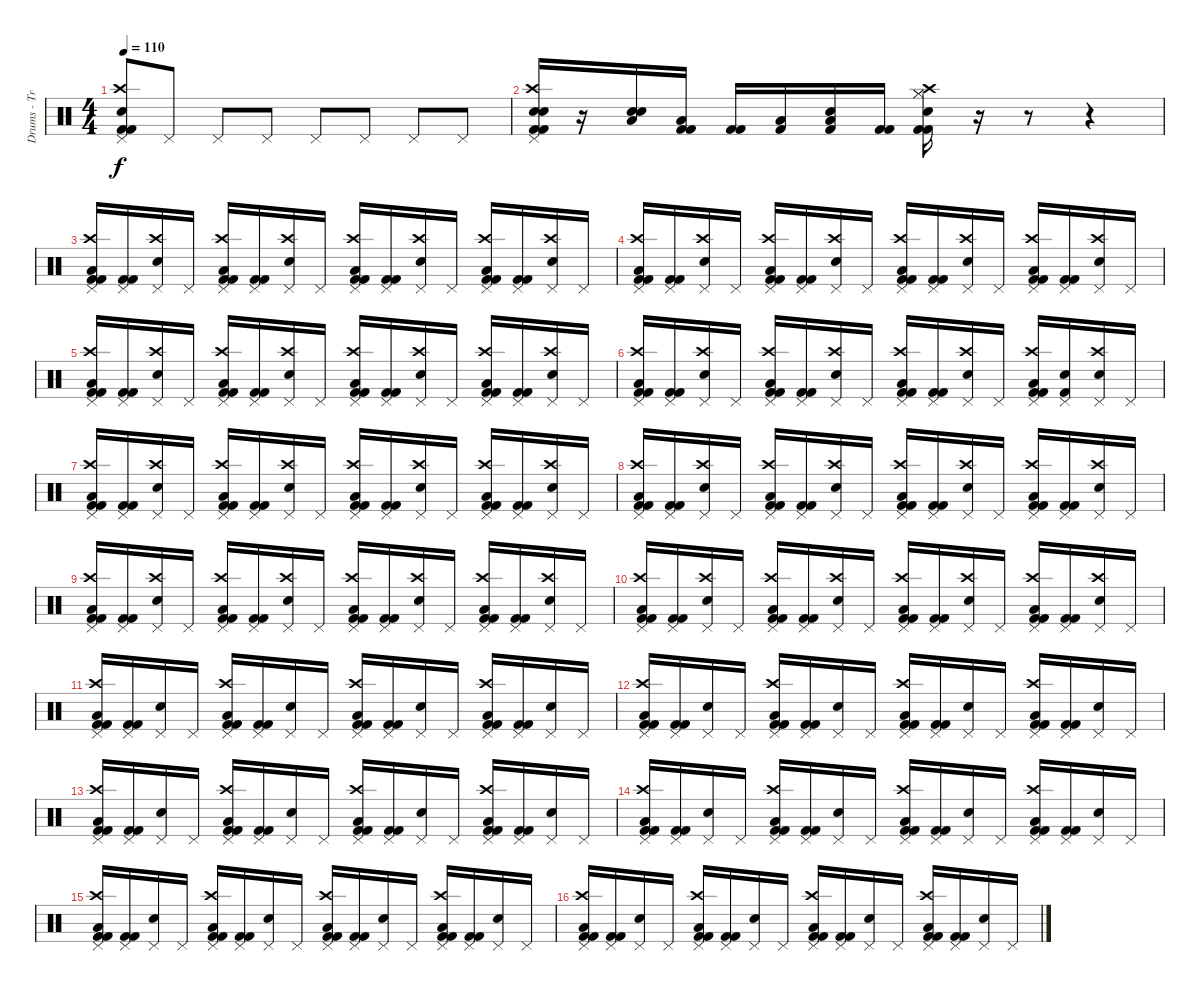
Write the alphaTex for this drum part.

\track ("Drums - Travis Barker" "Drums - Tr") {instrument percussion}
\staff {score}
\articulation defaults
\ts (4 4)
\tempo 110
\clef neutral
\ks c
("Pedal Hi-Hat (hit)" "Crash high (hit)" "Electric Snare (hit)" "Kick (hit) 2" "Kick (hit) 2").8{dy f} "Pedal Hi-Hat (hit)".8 "Pedal Hi-Hat (hit)".8 "Pedal Hi-Hat (hit)".8 "Pedal Hi-Hat (hit)".8 "Pedal Hi-Hat (hit)".8 "Pedal Hi-Hat (hit)".8 "Pedal Hi-Hat (hit)".8 |
("Pedal Hi-Hat (hit)" "Crash high (hit)" "Electric Snare (hit)" "Electric Snare (hit)" "Kick (hit) 2" "Kick (hit) 2").16 r.16 ("Low Tom (hit)" "Electric Snare (hit)" "Electric Snare (hit)").16 ("Low Tom (hit)" "Kick (hit) 2" "Kick (hit) 2").16 ("Kick (hit) 2" "Kick (hit) 2").16 ("Low Tom (hit)" "Kick (hit) 2").16 ("Low Tom (hit)" "Kick (hit) 2" "Electric Snare (hit)").16 ("Kick (hit) 2" "Kick (hit) 2").16 ("Hi-Hat (closed)" "Hi-Hat (closed)" "Crash high (hit)" "Kick (hit) 2" "Electric Snare (hit)" "Kick (hit) 2").16 r.16 r.8 r.4 |
("Pedal Hi-Hat (hit)" "Crash high (hit)" "Low Tom (hit)" "Kick (hit) 2" "Kick (hit) 2").16 ("Pedal Hi-Hat (hit)" "Kick (hit) 2" "Kick (hit) 2").16 ("Pedal Hi-Hat (hit)" "Crash high (hit)" "Electric Snare (hit)").16 "Pedal Hi-Hat (hit)".16 ("Pedal Hi-Hat (hit)" "Crash high (hit)" "Low Tom (hit)" "Kick (hit) 2" "Kick (hit) 2").16 ("Pedal Hi-Hat (hit)" "Kick (hit) 2" "Kick (hit) 2").16 ("Pedal Hi-Hat (hit)" "Crash high (hit)" "Electric Snare (hit)").16 "Pedal Hi-Hat (hit)".16 ("Pedal Hi-Hat (hit)" "Crash high (hit)" "Low Tom (hit)" "Kick (hit) 2" "Kick (hit) 2").16 ("Pedal Hi-Hat (hit)" "Kick (hit) 2" "Kick (hit) 2").16 ("Pedal Hi-Hat (hit)" "Crash high (hit)" "Electric Snare (hit)").16 "Pedal Hi-Hat (hit)".16 ("Pedal Hi-Hat (hit)" "Crash high (hit)" "Low Tom (hit)" "Kick (hit) 2" "Kick (hit) 2").16 ("Pedal Hi-Hat (hit)" "Kick (hit) 2" "Kick (hit) 2").16 ("Pedal Hi-Hat (hit)" "Crash high (hit)" "Electric Snare (hit)").16 "Pedal Hi-Hat (hit)".16 |
("Pedal Hi-Hat (hit)" "Crash high (hit)" "Low Tom (hit)" "Kick (hit) 2" "Kick (hit) 2").16 ("Pedal Hi-Hat (hit)" "Kick (hit) 2" "Kick (hit) 2").16 ("Pedal Hi-Hat (hit)" "Crash high (hit)" "Electric Snare (hit)").16 "Pedal Hi-Hat (hit)".16 ("Pedal Hi-Hat (hit)" "Crash high (hit)" "Low Tom (hit)" "Kick (hit) 2" "Kick (hit) 2").16 ("Pedal Hi-Hat (hit)" "Kick (hit) 2" "Kick (hit) 2").16 ("Pedal Hi-Hat (hit)" "Crash high (hit)" "Electric Snare (hit)").16 "Pedal Hi-Hat (hit)".16 ("Pedal Hi-Hat (hit)" "Crash high (hit)" "Low Tom (hit)" "Kick (hit) 2" "Kick (hit) 2").16 ("Pedal Hi-Hat (hit)" "Kick (hit) 2" "Kick (hit) 2").16 ("Pedal Hi-Hat (hit)" "Crash high (hit)" "Electric Snare (hit)").16 "Pedal Hi-Hat (hit)".16 ("Pedal Hi-Hat (hit)" "Crash high (hit)" "Low Tom (hit)" "Kick (hit) 2" "Kick (hit) 2").16 ("Pedal Hi-Hat (hit)" "Kick (hit) 2" "Kick (hit) 2").16 ("Pedal Hi-Hat (hit)" "Crash high (hit)" "Electric Snare (hit)").16 "Pedal Hi-Hat (hit)".16 |
("Pedal Hi-Hat (hit)" "Crash high (hit)" "Low Tom (hit)" "Kick (hit) 2" "Kick (hit) 2").16 ("Pedal Hi-Hat (hit)" "Kick (hit) 2" "Kick (hit) 2").16 ("Pedal Hi-Hat (hit)" "Crash high (hit)" "Electric Snare (hit)").16 "Pedal Hi-Hat (hit)".16 ("Pedal Hi-Hat (hit)" "Crash high (hit)" "Low Tom (hit)" "Kick (hit) 2" "Kick (hit) 2").16 ("Pedal Hi-Hat (hit)" "Kick (hit) 2" "Kick (hit) 2").16 ("Pedal Hi-Hat (hit)" "Crash high (hit)" "Electric Snare (hit)").16 "Pedal Hi-Hat (hit)".16 ("Pedal Hi-Hat (hit)" "Crash high (hit)" "Low Tom (hit)" "Kick (hit) 2" "Kick (hit) 2").16 ("Pedal Hi-Hat (hit)" "Kick (hit) 2" "Kick (hit) 2").16 ("Pedal Hi-Hat (hit)" "Crash high (hit)" "Electric Snare (hit)").16 "Pedal Hi-Hat (hit)".16 ("Pedal Hi-Hat (hit)" "Crash high (hit)" "Low Tom (hit)" "Kick (hit) 2" "Kick (hit) 2").16 ("Pedal Hi-Hat (hit)" "Kick (hit) 2" "Kick (hit) 2").16 ("Pedal Hi-Hat (hit)" "Crash high (hit)" "Electric Snare (hit)").16 "Pedal Hi-Hat (hit)".16 |
("Pedal Hi-Hat (hit)" "Crash high (hit)" "Low Tom (hit)" "Kick (hit) 2" "Kick (hit) 2").16 ("Pedal Hi-Hat (hit)" "Kick (hit) 2" "Kick (hit) 2").16 ("Pedal Hi-Hat (hit)" "Crash high (hit)" "Electric Snare (hit)").16 "Pedal Hi-Hat (hit)".16 ("Pedal Hi-Hat (hit)" "Crash high (hit)" "Low Tom (hit)" "Kick (hit) 2" "Kick (hit) 2").16 ("Pedal Hi-Hat (hit)" "Kick (hit) 2" "Kick (hit) 2").16 ("Pedal Hi-Hat (hit)" "Crash high (hit)" "Electric Snare (hit)").16 "Pedal Hi-Hat (hit)".16 ("Pedal Hi-Hat (hit)" "Crash high (hit)" "Low Tom (hit)" "Kick (hit) 2" "Kick (hit) 2").16 ("Pedal Hi-Hat (hit)" "Kick (hit) 2" "Kick (hit) 2").16 ("Pedal Hi-Hat (hit)" "Crash high (hit)" "Electric Snare (hit)").16 "Pedal Hi-Hat (hit)".16 ("Pedal Hi-Hat (hit)" "Crash high (hit)" "Low Tom (hit)" "Kick (hit) 2" "Kick (hit) 2").16 ("Pedal Hi-Hat (hit)" "Electric Snare (hit)" "Kick (hit) 2").16 ("Pedal Hi-Hat (hit)" "Crash high (hit)" "Electric Snare (hit)").16 "Pedal Hi-Hat (hit)".16 |
("Pedal Hi-Hat (hit)" "Crash high (hit)" "Low Tom (hit)" "Kick (hit) 2" "Kick (hit) 2").16 ("Pedal Hi-Hat (hit)" "Kick (hit) 2" "Kick (hit) 2").16 ("Pedal Hi-Hat (hit)" "Crash high (hit)" "Electric Snare (hit)").16 "Pedal Hi-Hat (hit)".16 ("Pedal Hi-Hat (hit)" "Crash high (hit)" "Low Tom (hit)" "Kick (hit) 2" "Kick (hit) 2").16 ("Pedal Hi-Hat (hit)" "Kick (hit) 2" "Kick (hit) 2").16 ("Pedal Hi-Hat (hit)" "Crash high (hit)" "Electric Snare (hit)").16 "Pedal Hi-Hat (hit)".16 ("Pedal Hi-Hat (hit)" "Crash high (hit)" "Low Tom (hit)" "Kick (hit) 2" "Kick (hit) 2").16 ("Pedal Hi-Hat (hit)" "Kick (hit) 2" "Kick (hit) 2").16 ("Pedal Hi-Hat (hit)" "Crash high (hit)" "Electric Snare (hit)").16 "Pedal Hi-Hat (hit)".16 ("Pedal Hi-Hat (hit)" "Crash high (hit)" "Low Tom (hit)" "Kick (hit) 2" "Kick (hit) 2").16 ("Pedal Hi-Hat (hit)" "Kick (hit) 2" "Kick (hit) 2").16 ("Pedal Hi-Hat (hit)" "Crash high (hit)" "Electric Snare (hit)").16 "Pedal Hi-Hat (hit)".16 |
("Pedal Hi-Hat (hit)" "Crash high (hit)" "Low Tom (hit)" "Kick (hit) 2" "Kick (hit) 2").16 ("Pedal Hi-Hat (hit)" "Kick (hit) 2" "Kick (hit) 2").16 ("Pedal Hi-Hat (hit)" "Crash high (hit)" "Electric Snare (hit)").16 "Pedal Hi-Hat (hit)".16 ("Pedal Hi-Hat (hit)" "Crash high (hit)" "Low Tom (hit)" "Kick (hit) 2" "Kick (hit) 2").16 ("Pedal Hi-Hat (hit)" "Kick (hit) 2" "Kick (hit) 2").16 ("Pedal Hi-Hat (hit)" "Crash high (hit)" "Electric Snare (hit)").16 "Pedal Hi-Hat (hit)".16 ("Pedal Hi-Hat (hit)" "Crash high (hit)" "Low Tom (hit)" "Kick (hit) 2" "Kick (hit) 2").16 ("Pedal Hi-Hat (hit)" "Kick (hit) 2" "Kick (hit) 2").16 ("Pedal Hi-Hat (hit)" "Crash high (hit)" "Electric Snare (hit)").16 "Pedal Hi-Hat (hit)".16 ("Pedal Hi-Hat (hit)" "Crash high (hit)" "Low Tom (hit)" "Kick (hit) 2" "Kick (hit) 2").16 ("Pedal Hi-Hat (hit)" "Kick (hit) 2" "Kick (hit) 2").16 ("Pedal Hi-Hat (hit)" "Crash high (hit)" "Electric Snare (hit)").16 "Pedal Hi-Hat (hit)".16 |
("Pedal Hi-Hat (hit)" "Crash high (hit)" "Low Tom (hit)" "Kick (hit) 2" "Kick (hit) 2").16 ("Pedal Hi-Hat (hit)" "Kick (hit) 2" "Kick (hit) 2").16 ("Pedal Hi-Hat (hit)" "Crash high (hit)" "Electric Snare (hit)").16 "Pedal Hi-Hat (hit)".16 ("Pedal Hi-Hat (hit)" "Crash high (hit)" "Low Tom (hit)" "Kick (hit) 2" "Kick (hit) 2").16 ("Pedal Hi-Hat (hit)" "Kick (hit) 2" "Kick (hit) 2").16 ("Pedal Hi-Hat (hit)" "Crash high (hit)" "Electric Snare (hit)").16 "Pedal Hi-Hat (hit)".16 ("Pedal Hi-Hat (hit)" "Crash high (hit)" "Low Tom (hit)" "Kick (hit) 2" "Kick (hit) 2").16 ("Pedal Hi-Hat (hit)" "Kick (hit) 2" "Kick (hit) 2").16 ("Pedal Hi-Hat (hit)" "Crash high (hit)" "Electric Snare (hit)").16 "Pedal Hi-Hat (hit)".16 ("Pedal Hi-Hat (hit)" "Crash high (hit)" "Low Tom (hit)" "Kick (hit) 2" "Kick (hit) 2").16 ("Pedal Hi-Hat (hit)" "Kick (hit) 2" "Kick (hit) 2").16 ("Pedal Hi-Hat (hit)" "Crash high (hit)" "Electric Snare (hit)").16 "Pedal Hi-Hat (hit)".16 |
("Pedal Hi-Hat (hit)" "Crash high (hit)" "Low Tom (hit)" "Kick (hit) 2" "Kick (hit) 2").16 ("Pedal Hi-Hat (hit)" "Kick (hit) 2" "Kick (hit) 2").16 ("Pedal Hi-Hat (hit)" "Crash high (hit)" "Electric Snare (hit)").16 "Pedal Hi-Hat (hit)".16 ("Pedal Hi-Hat (hit)" "Crash high (hit)" "Low Tom (hit)" "Kick (hit) 2" "Kick (hit) 2").16 ("Pedal Hi-Hat (hit)" "Kick (hit) 2" "Kick (hit) 2").16 ("Pedal Hi-Hat (hit)" "Crash high (hit)" "Electric Snare (hit)").16 "Pedal Hi-Hat (hit)".16 ("Pedal Hi-Hat (hit)" "Crash high (hit)" "Low Tom (hit)" "Kick (hit) 2" "Kick (hit) 2").16 ("Pedal Hi-Hat (hit)" "Kick (hit) 2" "Kick (hit) 2").16 ("Pedal Hi-Hat (hit)" "Crash high (hit)" "Electric Snare (hit)").16 "Pedal Hi-Hat (hit)".16 ("Pedal Hi-Hat (hit)" "Crash high (hit)" "Low Tom (hit)" "Kick (hit) 2" "Kick (hit) 2").16 ("Pedal Hi-Hat (hit)" "Kick (hit) 2" "Kick (hit) 2").16 ("Pedal Hi-Hat (hit)" "Crash high (hit)" "Electric Snare (hit)").16 "Pedal Hi-Hat (hit)".16 |
("Pedal Hi-Hat (hit)" "Crash high (hit)" "Low Tom (hit)" "Kick (hit) 2" "Kick (hit) 2").16 ("Pedal Hi-Hat (hit)" "Kick (hit) 2" "Kick (hit) 2").16 ("Pedal Hi-Hat (hit)" "Electric Snare (hit)").16 "Pedal Hi-Hat (hit)".16 ("Pedal Hi-Hat (hit)" "Crash high (hit)" "Low Tom (hit)" "Kick (hit) 2" "Kick (hit) 2").16 ("Pedal Hi-Hat (hit)" "Kick (hit) 2" "Kick (hit) 2").16 ("Pedal Hi-Hat (hit)" "Electric Snare (hit)").16 "Pedal Hi-Hat (hit)".16 ("Pedal Hi-Hat (hit)" "Crash high (hit)" "Low Tom (hit)" "Kick (hit) 2" "Kick (hit) 2").16 ("Pedal Hi-Hat (hit)" "Kick (hit) 2" "Kick (hit) 2").16 ("Pedal Hi-Hat (hit)" "Electric Snare (hit)").16 "Pedal Hi-Hat (hit)".16 ("Pedal Hi-Hat (hit)" "Crash high (hit)" "Low Tom (hit)" "Kick (hit) 2" "Kick (hit) 2").16 ("Pedal Hi-Hat (hit)" "Kick (hit) 2" "Kick (hit) 2").16 ("Pedal Hi-Hat (hit)" "Electric Snare (hit)").16 "Pedal Hi-Hat (hit)".16 |
("Pedal Hi-Hat (hit)" "Crash high (hit)" "Low Tom (hit)" "Kick (hit) 2" "Kick (hit) 2").16 ("Pedal Hi-Hat (hit)" "Kick (hit) 2" "Kick (hit) 2").16 ("Pedal Hi-Hat (hit)" "Electric Snare (hit)").16 "Pedal Hi-Hat (hit)".16 ("Pedal Hi-Hat (hit)" "Crash high (hit)" "Low Tom (hit)" "Kick (hit) 2" "Kick (hit) 2").16 ("Pedal Hi-Hat (hit)" "Kick (hit) 2" "Kick (hit) 2").16 ("Pedal Hi-Hat (hit)" "Electric Snare (hit)").16 "Pedal Hi-Hat (hit)".16 ("Pedal Hi-Hat (hit)" "Crash high (hit)" "Low Tom (hit)" "Kick (hit) 2" "Kick (hit) 2").16 ("Pedal Hi-Hat (hit)" "Kick (hit) 2" "Kick (hit) 2").16 ("Pedal Hi-Hat (hit)" "Electric Snare (hit)").16 "Pedal Hi-Hat (hit)".16 ("Pedal Hi-Hat (hit)" "Crash high (hit)" "Low Tom (hit)" "Kick (hit) 2" "Kick (hit) 2").16 ("Pedal Hi-Hat (hit)" "Kick (hit) 2" "Kick (hit) 2").16 ("Pedal Hi-Hat (hit)" "Electric Snare (hit)").16 "Pedal Hi-Hat (hit)".16 |
("Pedal Hi-Hat (hit)" "Crash high (hit)" "Low Tom (hit)" "Kick (hit) 2" "Kick (hit) 2").16 ("Pedal Hi-Hat (hit)" "Kick (hit) 2" "Kick (hit) 2").16 ("Pedal Hi-Hat (hit)" "Electric Snare (hit)").16 "Pedal Hi-Hat (hit)".16 ("Pedal Hi-Hat (hit)" "Crash high (hit)" "Low Tom (hit)" "Kick (hit) 2" "Kick (hit) 2").16 ("Pedal Hi-Hat (hit)" "Kick (hit) 2" "Kick (hit) 2").16 ("Pedal Hi-Hat (hit)" "Electric Snare (hit)").16 "Pedal Hi-Hat (hit)".16 ("Pedal Hi-Hat (hit)" "Crash high (hit)" "Low Tom (hit)" "Kick (hit) 2" "Kick (hit) 2").16 ("Pedal Hi-Hat (hit)" "Kick (hit) 2" "Kick (hit) 2").16 ("Pedal Hi-Hat (hit)" "Electric Snare (hit)").16 "Pedal Hi-Hat (hit)".16 ("Pedal Hi-Hat (hit)" "Crash high (hit)" "Low Tom (hit)" "Kick (hit) 2" "Kick (hit) 2").16 ("Pedal Hi-Hat (hit)" "Kick (hit) 2" "Kick (hit) 2").16 ("Pedal Hi-Hat (hit)" "Electric Snare (hit)").16 "Pedal Hi-Hat (hit)".16 |
("Pedal Hi-Hat (hit)" "Crash high (hit)" "Low Tom (hit)" "Kick (hit) 2" "Kick (hit) 2").16 ("Pedal Hi-Hat (hit)" "Kick (hit) 2" "Kick (hit) 2").16 ("Pedal Hi-Hat (hit)" "Electric Snare (hit)").16 "Pedal Hi-Hat (hit)".16 ("Pedal Hi-Hat (hit)" "Crash high (hit)" "Low Tom (hit)" "Kick (hit) 2" "Kick (hit) 2").16 ("Pedal Hi-Hat (hit)" "Kick (hit) 2" "Kick (hit) 2").16 ("Pedal Hi-Hat (hit)" "Electric Snare (hit)").16 "Pedal Hi-Hat (hit)".16 ("Pedal Hi-Hat (hit)" "Crash high (hit)" "Low Tom (hit)" "Kick (hit) 2" "Kick (hit) 2").16 ("Pedal Hi-Hat (hit)" "Kick (hit) 2" "Kick (hit) 2").16 ("Pedal Hi-Hat (hit)" "Electric Snare (hit)").16 "Pedal Hi-Hat (hit)".16 ("Pedal Hi-Hat (hit)" "Crash high (hit)" "Low Tom (hit)" "Kick (hit) 2" "Kick (hit) 2").16 ("Pedal Hi-Hat (hit)" "Kick (hit) 2" "Kick (hit) 2").16 ("Pedal Hi-Hat (hit)" "Electric Snare (hit)").16 "Pedal Hi-Hat (hit)".16 |
("Pedal Hi-Hat (hit)" "Crash high (hit)" "Low Tom (hit)" "Kick (hit) 2" "Kick (hit) 2").16 ("Pedal Hi-Hat (hit)" "Kick (hit) 2" "Kick (hit) 2").16 ("Pedal Hi-Hat (hit)" "Electric Snare (hit)").16 "Pedal Hi-Hat (hit)".16 ("Pedal Hi-Hat (hit)" "Crash high (hit)" "Low Tom (hit)" "Kick (hit) 2" "Kick (hit) 2").16 ("Pedal Hi-Hat (hit)" "Kick (hit) 2" "Kick (hit) 2").16 ("Pedal Hi-Hat (hit)" "Electric Snare (hit)").16 "Pedal Hi-Hat (hit)".16 ("Pedal Hi-Hat (hit)" "Crash high (hit)" "Low Tom (hit)" "Kick (hit) 2" "Kick (hit) 2").16 ("Pedal Hi-Hat (hit)" "Kick (hit) 2" "Kick (hit) 2").16 ("Pedal Hi-Hat (hit)" "Electric Snare (hit)").16 "Pedal Hi-Hat (hit)".16 ("Pedal Hi-Hat (hit)" "Crash high (hit)" "Low Tom (hit)" "Kick (hit) 2" "Kick (hit) 2").16 ("Pedal Hi-Hat (hit)" "Kick (hit) 2" "Kick (hit) 2").16 ("Pedal Hi-Hat (hit)" "Electric Snare (hit)").16 "Pedal Hi-Hat (hit)".16 |
("Pedal Hi-Hat (hit)" "Crash high (hit)" "Low Tom (hit)" "Kick (hit) 2" "Kick (hit) 2").16 ("Pedal Hi-Hat (hit)" "Kick (hit) 2" "Kick (hit) 2").16 ("Pedal Hi-Hat (hit)" "Electric Snare (hit)").16 "Pedal Hi-Hat (hit)".16 ("Pedal Hi-Hat (hit)" "Crash high (hit)" "Low Tom (hit)" "Kick (hit) 2" "Kick (hit) 2").16 ("Pedal Hi-Hat (hit)" "Kick (hit) 2" "Kick (hit) 2").16 ("Pedal Hi-Hat (hit)" "Electric Snare (hit)").16 "Pedal Hi-Hat (hit)".16 ("Pedal Hi-Hat (hit)" "Crash high (hit)" "Low Tom (hit)" "Kick (hit) 2" "Kick (hit) 2").16 ("Pedal Hi-Hat (hit)" "Kick (hit) 2" "Kick (hit) 2").16 ("Pedal Hi-Hat (hit)" "Electric Snare (hit)").16 "Pedal Hi-Hat (hit)".16 ("Pedal Hi-Hat (hit)" "Crash high (hit)" "Low Tom (hit)" "Kick (hit) 2" "Kick (hit) 2").16 ("Pedal Hi-Hat (hit)" "Kick (hit) 2" "Kick (hit) 2").16 ("Pedal Hi-Hat (hit)" "Electric Snare (hit)").16 "Pedal Hi-Hat (hit)".16
